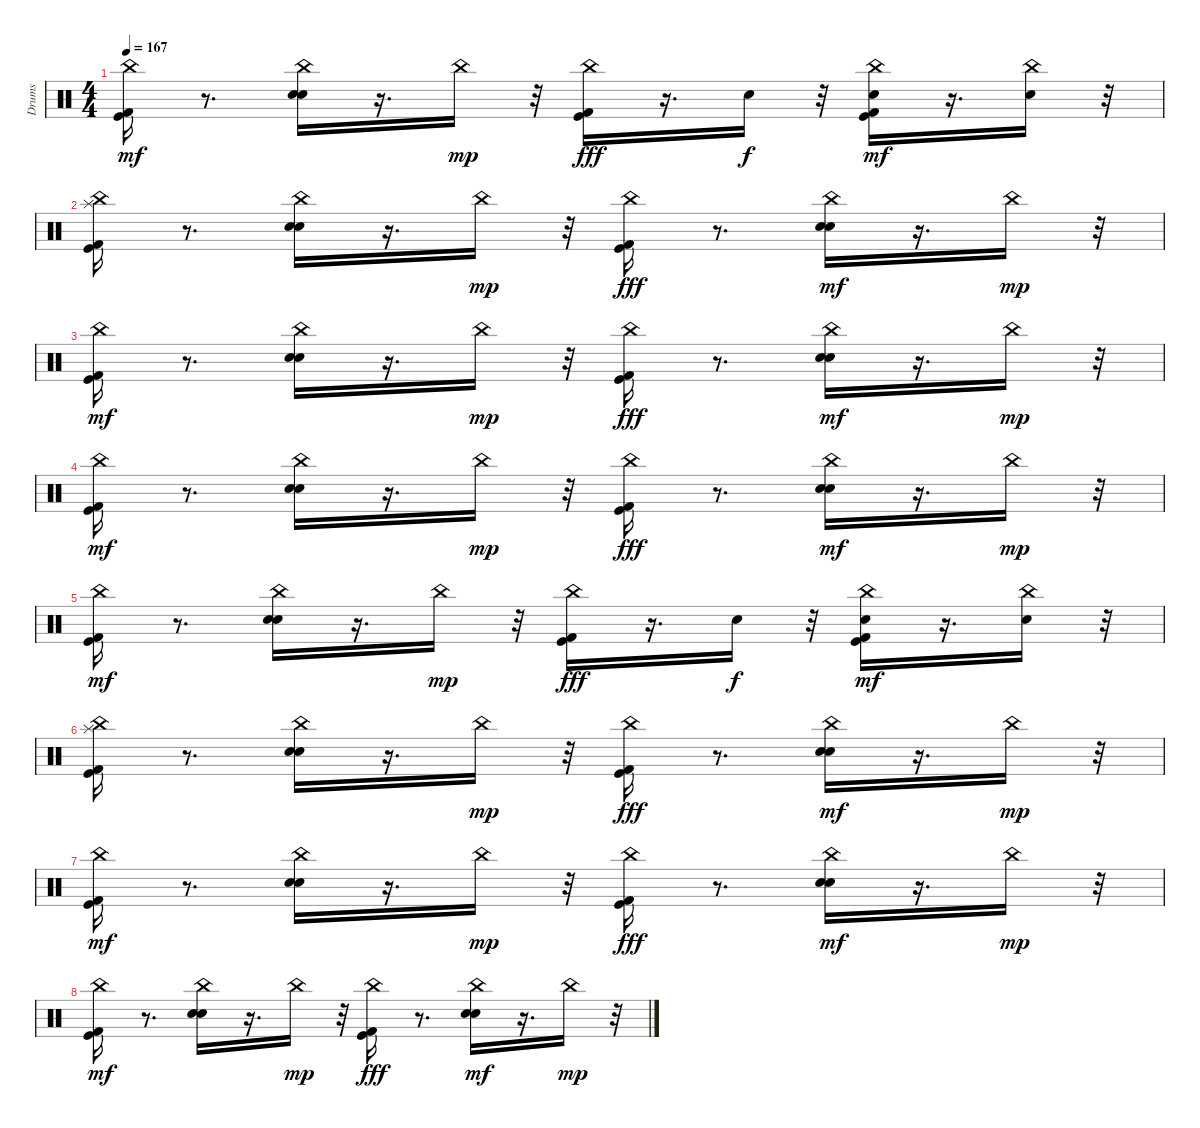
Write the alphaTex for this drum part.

\track ("Drums" "Drums") {instrument percussion}
\staff {score}
\articulation defaults
\ts (4 4)
\tempo 167
\clef neutral
\ks c
("Kick (hit) 2" "Kick (hit)" "China (hit)").16{dy mf} r.8{d} ("Snare (hit) 2" "China (hit)" "Hand Clap (hit)").16 r.16{d} "China (hit)".16{dy mp} r.32 ("China (hit)" "Kick (hit) 2" "Kick (hit)").16{dy fff} r.16{d} "Snare (hit) 2".16{dy f} r.32 ("China (hit)" "Kick (hit) 2" "Kick (hit)" "Hand Clap (hit)").16{dy mf} r.16{d} ("China (hit)" "Snare (hit) 2").16 r.32 |
("Kick (hit) 2" "Kick (hit)" "Splash (hit)" "China (hit)").16 r.8{d} ("Snare (hit) 2" "China (hit)" "Hand Clap (hit)").16 r.16{d} "China (hit)".16{dy mp} r.32 ("China (hit)" "Kick (hit) 2" "Kick (hit)").16{dy fff} r.8{d} ("Snare (hit) 2" "China (hit)" "Hand Clap (hit)").16{dy mf} r.16{d} "China (hit)".16{dy mp} r.32 |
("Kick (hit) 2" "Kick (hit)" "China (hit)").16{dy mf} r.8{d} ("Snare (hit) 2" "China (hit)" "Hand Clap (hit)").16 r.16{d} "China (hit)".16{dy mp} r.32 ("China (hit)" "Kick (hit) 2" "Kick (hit)").16{dy fff} r.8{d} ("Snare (hit) 2" "China (hit)" "Hand Clap (hit)").16{dy mf} r.16{d} "China (hit)".16{dy mp} r.32 |
("Kick (hit) 2" "Kick (hit)" "China (hit)").16{dy mf} r.8{d} ("Snare (hit) 2" "China (hit)" "Hand Clap (hit)").16 r.16{d} "China (hit)".16{dy mp} r.32 ("China (hit)" "Kick (hit) 2" "Kick (hit)").16{dy fff} r.8{d} ("Snare (hit) 2" "China (hit)" "Hand Clap (hit)").16{dy mf} r.16{d} "China (hit)".16{dy mp} r.32 |
("Kick (hit) 2" "Kick (hit)" "China (hit)").16{dy mf} r.8{d} ("Snare (hit) 2" "China (hit)" "Hand Clap (hit)").16 r.16{d} "China (hit)".16{dy mp} r.32 ("China (hit)" "Kick (hit) 2" "Kick (hit)").16{dy fff} r.16{d} "Snare (hit) 2".16{dy f} r.32 ("China (hit)" "Kick (hit) 2" "Kick (hit)" "Hand Clap (hit)").16{dy mf} r.16{d} ("China (hit)" "Snare (hit) 2").16 r.32 |
("Kick (hit) 2" "Kick (hit)" "Splash (hit)" "China (hit)").16 r.8{d} ("Snare (hit) 2" "China (hit)" "Hand Clap (hit)").16 r.16{d} "China (hit)".16{dy mp} r.32 ("China (hit)" "Kick (hit) 2" "Kick (hit)").16{dy fff} r.8{d} ("Snare (hit) 2" "China (hit)" "Hand Clap (hit)").16{dy mf} r.16{d} "China (hit)".16{dy mp} r.32 |
("Kick (hit) 2" "Kick (hit)" "China (hit)").16{dy mf} r.8{d} ("Snare (hit) 2" "China (hit)" "Hand Clap (hit)").16 r.16{d} "China (hit)".16{dy mp} r.32 ("China (hit)" "Kick (hit) 2" "Kick (hit)").16{dy fff} r.8{d} ("Snare (hit) 2" "China (hit)" "Hand Clap (hit)").16{dy mf} r.16{d} "China (hit)".16{dy mp} r.32 |
("Kick (hit) 2" "Kick (hit)" "China (hit)").16{dy mf} r.8{d} ("Snare (hit) 2" "China (hit)" "Hand Clap (hit)").16 r.16{d} "China (hit)".16{dy mp} r.32 ("China (hit)" "Kick (hit) 2" "Kick (hit)").16{dy fff} r.8{d} ("Snare (hit) 2" "China (hit)" "Hand Clap (hit)").16{dy mf} r.16{d} "China (hit)".16{dy mp} r.32
